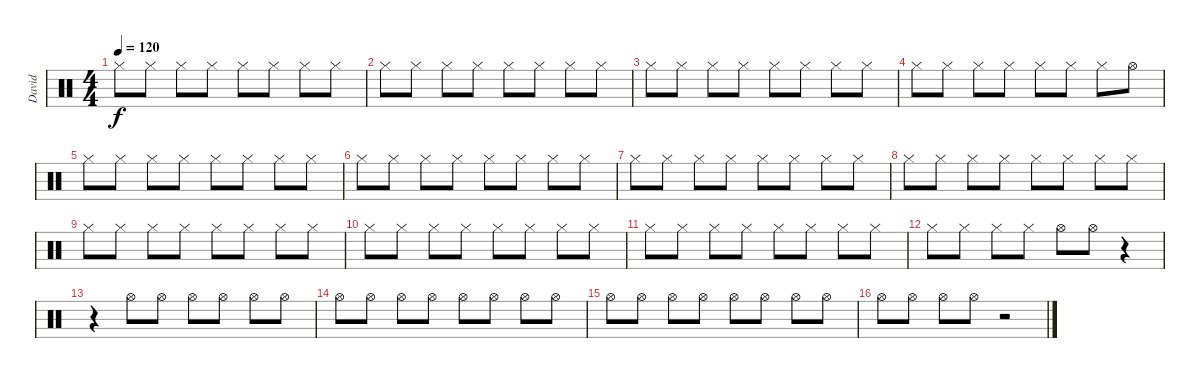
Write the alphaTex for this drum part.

\track ("David" "David") {instrument percussion}
\staff {score}
\articulation defaults
\ts (4 4)
\tempo 120
\clef neutral
\ks c "Hi-Hat (closed)".8{dy f} "Hi-Hat (closed)".8 "Hi-Hat (closed)".8 "Hi-Hat (closed)".8 "Hi-Hat (closed)".8 "Hi-Hat (closed)".8 "Hi-Hat (closed)".8 "Hi-Hat (closed)".8
|
"Hi-Hat (closed)".8 "Hi-Hat (closed)".8 "Hi-Hat (closed)".8 "Hi-Hat (closed)".8 "Hi-Hat (closed)".8 "Hi-Hat (closed)".8 "Hi-Hat (closed)".8 "Hi-Hat (closed)".8 |
"Hi-Hat (closed)".8 "Hi-Hat (closed)".8 "Hi-Hat (closed)".8 "Hi-Hat (closed)".8 "Hi-Hat (closed)".8 "Hi-Hat (closed)".8 "Hi-Hat (closed)".8 "Hi-Hat (closed)".8 |
"Hi-Hat (closed)".8 "Hi-Hat (closed)".8 "Hi-Hat (closed)".8 "Hi-Hat (closed)".8 "Hi-Hat (closed)".8 "Hi-Hat (closed)".8 "Hi-Hat (closed)".8 "Hi-Hat (open)".8 |
"Hi-Hat (closed)".8 "Hi-Hat (closed)".8 "Hi-Hat (closed)".8 "Hi-Hat (closed)".8 "Hi-Hat (closed)".8 "Hi-Hat (closed)".8 "Hi-Hat (closed)".8 "Hi-Hat (closed)".8 |
"Hi-Hat (closed)".8 "Hi-Hat (closed)".8 "Hi-Hat (closed)".8 "Hi-Hat (closed)".8 "Hi-Hat (closed)".8 "Hi-Hat (closed)".8 "Hi-Hat (closed)".8 "Hi-Hat (closed)".8 |
"Hi-Hat (closed)".8 "Hi-Hat (closed)".8 "Hi-Hat (closed)".8 "Hi-Hat (closed)".8 "Hi-Hat (closed)".8 "Hi-Hat (closed)".8 "Hi-Hat (closed)".8 "Hi-Hat (closed)".8 |
"Hi-Hat (closed)".8 "Hi-Hat (closed)".8 "Hi-Hat (closed)".8 "Hi-Hat (closed)".8 "Hi-Hat (closed)".8 "Hi-Hat (closed)".8 "Hi-Hat (closed)".8 "Hi-Hat (closed)".8 |
"Hi-Hat (closed)".8 "Hi-Hat (closed)".8 "Hi-Hat (closed)".8 "Hi-Hat (closed)".8 "Hi-Hat (closed)".8 "Hi-Hat (closed)".8 "Hi-Hat (closed)".8 "Hi-Hat (closed)".8 |
"Hi-Hat (closed)".8 "Hi-Hat (closed)".8 "Hi-Hat (closed)".8 "Hi-Hat (closed)".8 "Hi-Hat (closed)".8 "Hi-Hat (closed)".8 "Hi-Hat (closed)".8 "Hi-Hat (closed)".8 |
"Hi-Hat (closed)".8 "Hi-Hat (closed)".8 "Hi-Hat (closed)".8 "Hi-Hat (closed)".8 "Hi-Hat (closed)".8 "Hi-Hat (closed)".8 "Hi-Hat (closed)".8 "Hi-Hat (closed)".8 |
"Hi-Hat (closed)".8 "Hi-Hat (closed)".8 "Hi-Hat (closed)".8 "Hi-Hat (closed)".8 "Hi-Hat (open)".8 "Hi-Hat (open)".8 r.4 |
r.4 "Hi-Hat (open)".8 "Hi-Hat (open)".8 "Hi-Hat (open)".8 "Hi-Hat (open)".8 "Hi-Hat (open)".8 "Hi-Hat (open)".8 |
"Hi-Hat (open)".8 "Hi-Hat (open)".8 "Hi-Hat (open)".8 "Hi-Hat (open)".8 "Hi-Hat (open)".8 "Hi-Hat (open)".8 "Hi-Hat (open)".8 "Hi-Hat (open)".8 |
"Hi-Hat (open)".8 "Hi-Hat (open)".8 "Hi-Hat (open)".8 "Hi-Hat (open)".8 "Hi-Hat (open)".8 "Hi-Hat (open)".8 "Hi-Hat (open)".8 "Hi-Hat (open)".8 |
"Hi-Hat (open)".8 "Hi-Hat (open)".8 "Hi-Hat (open)".8 "Hi-Hat (open)".8 r.2
